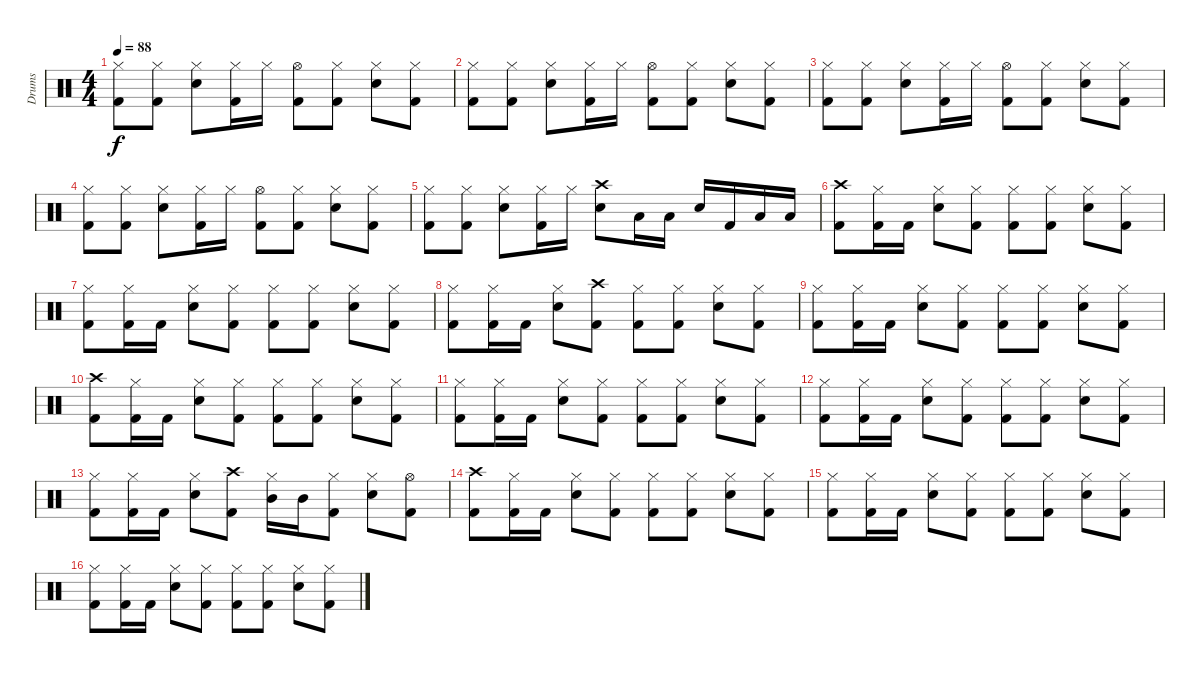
\track ("Drums" "Drums") {instrument percussion}
\staff {score}
\articulation defaults
\ts (4 4)
\tempo 88
\clef neutral
\ks c
("Hi-Hat (closed)" "Kick (hit) 2").8{dy f} ("Hi-Hat (closed)" "Kick (hit) 2").8 ("Hi-Hat (closed)" "Electric Snare (hit)").8 ("Hi-Hat (closed)" "Kick (hit) 2").16 "Hi-Hat (closed)".16 ("Hi-Hat (open)" "Kick (hit) 2").8 ("Hi-Hat (closed)" "Kick (hit) 2").8 ("Hi-Hat (closed)" "Electric Snare (hit)").8 ("Hi-Hat (closed)" "Kick (hit) 2").8 |
("Hi-Hat (closed)" "Kick (hit) 2").8 ("Hi-Hat (closed)" "Kick (hit) 2").8 ("Hi-Hat (closed)" "Electric Snare (hit)").8 ("Hi-Hat (closed)" "Kick (hit) 2").16 "Hi-Hat (closed)".16 ("Hi-Hat (open)" "Kick (hit) 2").8 ("Hi-Hat (closed)" "Kick (hit) 2").8 ("Hi-Hat (closed)" "Electric Snare (hit)").8 ("Hi-Hat (closed)" "Kick (hit) 2").8 |
("Hi-Hat (closed)" "Kick (hit) 2").8 ("Hi-Hat (closed)" "Kick (hit) 2").8 ("Hi-Hat (closed)" "Electric Snare (hit)").8 ("Hi-Hat (closed)" "Kick (hit) 2").16 "Hi-Hat (closed)".16 ("Hi-Hat (open)" "Kick (hit) 2").8 ("Hi-Hat (closed)" "Kick (hit) 2").8 ("Hi-Hat (closed)" "Electric Snare (hit)").8 ("Hi-Hat (closed)" "Kick (hit) 2").8 |
("Hi-Hat (closed)" "Kick (hit) 2").8 ("Hi-Hat (closed)" "Kick (hit) 2").8 ("Hi-Hat (closed)" "Electric Snare (hit)").8 ("Hi-Hat (closed)" "Kick (hit) 2").16 "Hi-Hat (closed)".16 ("Hi-Hat (open)" "Kick (hit) 2").8 ("Hi-Hat (closed)" "Kick (hit) 2").8 ("Hi-Hat (closed)" "Electric Snare (hit)").8 ("Hi-Hat (closed)" "Kick (hit) 2").8 |
("Hi-Hat (closed)" "Kick (hit) 2").8 ("Hi-Hat (closed)" "Kick (hit) 2").8 ("Hi-Hat (closed)" "Electric Snare (hit)").8 ("Hi-Hat (closed)" "Kick (hit) 2").16 "Hi-Hat (closed)".16 ("Crash high (hit)" "Electric Snare (hit)").8 "Low Tom (hit)".16 "Low Tom (hit)".16 "Electric Snare (hit)".16 "Kick (hit) 2".16 "Low Tom (hit)".16 "Low Tom (hit)".16 |
("Crash high (hit)" "Kick (hit) 2").8 ("Hi-Hat (closed)" "Kick (hit) 2").16 "Kick (hit) 2".16 ("Hi-Hat (closed)" "Electric Snare (hit)").8 ("Hi-Hat (closed)" "Kick (hit) 2").8 ("Hi-Hat (closed)" "Kick (hit) 2").8 ("Hi-Hat (closed)" "Kick (hit) 2").8 ("Hi-Hat (closed)" "Electric Snare (hit)").8 ("Hi-Hat (closed)" "Kick (hit) 2").8 |
("Hi-Hat (closed)" "Kick (hit) 2").8 ("Hi-Hat (closed)" "Kick (hit) 2").16 "Kick (hit) 2".16 ("Hi-Hat (closed)" "Electric Snare (hit)").8 ("Hi-Hat (closed)" "Kick (hit) 2").8 ("Hi-Hat (closed)" "Kick (hit) 2").8 ("Hi-Hat (closed)" "Kick (hit) 2").8 ("Hi-Hat (closed)" "Electric Snare (hit)").8 ("Hi-Hat (closed)" "Kick (hit) 2").8 |
("Hi-Hat (closed)" "Kick (hit) 2").8 ("Hi-Hat (closed)" "Kick (hit) 2").16 "Kick (hit) 2".16 ("Hi-Hat (closed)" "Electric Snare (hit)").8 ("Crash high (hit)" "Kick (hit) 2").8 ("Hi-Hat (closed)" "Kick (hit) 2").8 ("Hi-Hat (closed)" "Kick (hit) 2").8 ("Hi-Hat (closed)" "Electric Snare (hit)").8 ("Hi-Hat (closed)" "Kick (hit) 2").8 |
("Hi-Hat (closed)" "Kick (hit) 2").8 ("Hi-Hat (closed)" "Kick (hit) 2").16 "Kick (hit) 2".16 ("Hi-Hat (closed)" "Electric Snare (hit)").8 ("Hi-Hat (closed)" "Kick (hit) 2").8 ("Hi-Hat (closed)" "Kick (hit) 2").8 ("Hi-Hat (closed)" "Kick (hit) 2").8 ("Hi-Hat (closed)" "Electric Snare (hit)").8 ("Hi-Hat (closed)" "Kick (hit) 2").8 |
("Crash high (hit)" "Kick (hit) 2").8 ("Hi-Hat (closed)" "Kick (hit) 2").16 "Kick (hit) 2".16 ("Hi-Hat (closed)" "Electric Snare (hit)").8 ("Hi-Hat (closed)" "Kick (hit) 2").8 ("Hi-Hat (closed)" "Kick (hit) 2").8 ("Hi-Hat (closed)" "Kick (hit) 2").8 ("Hi-Hat (closed)" "Electric Snare (hit)").8 ("Hi-Hat (closed)" "Kick (hit) 2").8 |
("Hi-Hat (closed)" "Kick (hit) 2").8 ("Hi-Hat (closed)" "Kick (hit) 2").16 "Kick (hit) 2".16 ("Hi-Hat (closed)" "Electric Snare (hit)").8 ("Hi-Hat (closed)" "Kick (hit) 2").8 ("Hi-Hat (closed)" "Kick (hit) 2").8 ("Hi-Hat (closed)" "Kick (hit) 2").8 ("Hi-Hat (closed)" "Electric Snare (hit)").8 ("Hi-Hat (closed)" "Kick (hit) 2").8 |
("Hi-Hat (closed)" "Kick (hit) 2").8 ("Hi-Hat (closed)" "Kick (hit) 2").16 "Kick (hit) 2".16 ("Hi-Hat (closed)" "Electric Snare (hit)").8 ("Hi-Hat (closed)" "Kick (hit) 2").8 ("Hi-Hat (closed)" "Kick (hit) 2").8 ("Hi-Hat (closed)" "Kick (hit) 2").8 ("Hi-Hat (closed)" "Electric Snare (hit)").8 ("Hi-Hat (closed)" "Kick (hit) 2").8 |
("Hi-Hat (closed)" "Kick (hit) 2").8 ("Hi-Hat (closed)" "Kick (hit) 2").16 "Kick (hit) 2".16 ("Hi-Hat (closed)" "Electric Snare (hit)").8 ("Crash high (hit)" "Kick (hit) 2").8 ("Hi-Hat (closed)" "Mid Tom (hit)").16 "Mid Tom (hit)".16 ("Hi-Hat (closed)" "Kick (hit) 2").8 ("Hi-Hat (closed)" "Electric Snare (hit)").8 ("Hi-Hat (open)" "Kick (hit) 2").8 |
("Crash high (hit)" "Kick (hit) 2").8 ("Hi-Hat (closed)" "Kick (hit) 2").16 "Kick (hit) 2".16 ("Hi-Hat (closed)" "Electric Snare (hit)").8 ("Hi-Hat (closed)" "Kick (hit) 2").8 ("Hi-Hat (closed)" "Kick (hit) 2").8 ("Hi-Hat (closed)" "Kick (hit) 2").8 ("Hi-Hat (closed)" "Electric Snare (hit)").8 ("Hi-Hat (closed)" "Kick (hit) 2").8 |
("Hi-Hat (closed)" "Kick (hit) 2").8 ("Hi-Hat (closed)" "Kick (hit) 2").16 "Kick (hit) 2".16 ("Hi-Hat (closed)" "Electric Snare (hit)").8 ("Hi-Hat (closed)" "Kick (hit) 2").8 ("Hi-Hat (closed)" "Kick (hit) 2").8 ("Hi-Hat (closed)" "Kick (hit) 2").8 ("Hi-Hat (closed)" "Electric Snare (hit)").8 ("Hi-Hat (closed)" "Kick (hit) 2").8 |
("Hi-Hat (closed)" "Kick (hit) 2").8 ("Hi-Hat (closed)" "Kick (hit) 2").16 "Kick (hit) 2".16 ("Hi-Hat (closed)" "Electric Snare (hit)").8 ("Hi-Hat (closed)" "Kick (hit) 2").8 ("Hi-Hat (closed)" "Kick (hit) 2").8 ("Hi-Hat (closed)" "Kick (hit) 2").8 ("Hi-Hat (closed)" "Electric Snare (hit)").8 ("Hi-Hat (closed)" "Kick (hit) 2").8
